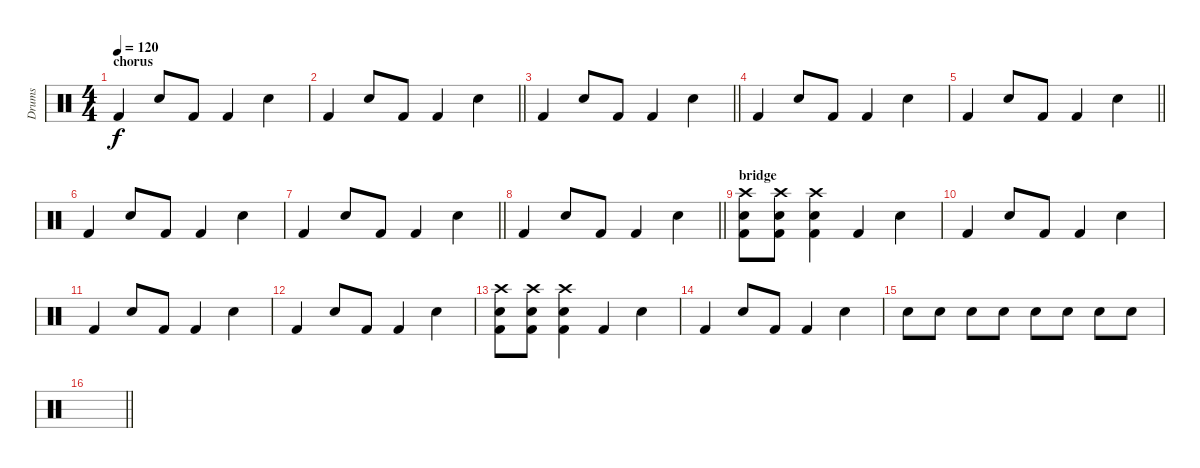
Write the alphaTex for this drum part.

\track ("Drums" "Drums") {instrument percussion}
\staff {score}
\articulation defaults
\ts (4 4)
\section ("" "chorus")
\tempo 120
\clef neutral
\ks c "Kick (hit) 2".4{dy f} "Snare (hit) 2".8 "Kick (hit) 2".8 "Kick (hit) 2".4 "Snare (hit) 2".4
|
\barLineRight lightlight "Kick (hit) 2".4 "Snare (hit) 2".8 "Kick (hit) 2".8 "Kick (hit) 2".4 "Snare (hit) 2".4
|
\barLineRight lightlight "Kick (hit) 2".4 "Snare (hit) 2".8 "Kick (hit) 2".8 "Kick (hit) 2".4 "Snare (hit) 2".4
|
"Kick (hit) 2".4 "Snare (hit) 2".8 "Kick (hit) 2".8 "Kick (hit) 2".4 "Snare (hit) 2".4 |
\barLineRight lightlight "Kick (hit) 2".4 "Snare (hit) 2".8 "Kick (hit) 2".8 "Kick (hit) 2".4 "Snare (hit) 2".4
|
"Kick (hit) 2".4 "Snare (hit) 2".8 "Kick (hit) 2".8 "Kick (hit) 2".4 "Snare (hit) 2".4 |
\barLineRight lightlight "Kick (hit) 2".4 "Snare (hit) 2".8 "Kick (hit) 2".8 "Kick (hit) 2".4 "Snare (hit) 2".4
|
\barLineRight lightlight "Kick (hit) 2".4 "Snare (hit) 2".8 "Kick (hit) 2".8 "Kick (hit) 2".4 "Snare (hit) 2".4
|
\section ("" "bridge")
("Snare (hit) 2" "Kick (hit) 2" "Crash high (hit)").8 ("Snare (hit) 2" "Kick (hit) 2" "Crash high (hit)").8 ("Snare (hit) 2" "Kick (hit) 2" "Crash high (hit)").4 "Kick (hit) 2".4 "Snare (hit) 2".4 |
"Kick (hit) 2".4 "Snare (hit) 2".8 "Kick (hit) 2".8 "Kick (hit) 2".4 "Snare (hit) 2".4 |
"Kick (hit) 2".4 "Snare (hit) 2".8 "Kick (hit) 2".8 "Kick (hit) 2".4 "Snare (hit) 2".4 |
"Kick (hit) 2".4 "Snare (hit) 2".8 "Kick (hit) 2".8 "Kick (hit) 2".4 "Snare (hit) 2".4 |
("Snare (hit) 2" "Kick (hit) 2" "Crash high (hit)").8 ("Snare (hit) 2" "Kick (hit) 2" "Crash high (hit)").8 ("Snare (hit) 2" "Kick (hit) 2" "Crash high (hit)").4 "Kick (hit) 2".4 "Snare (hit) 2".4 |
"Kick (hit) 2".4 "Snare (hit) 2".8 "Kick (hit) 2".8 "Kick (hit) 2".4 "Snare (hit) 2".4 |
"Snare (hit) 2".8 "Snare (hit) 2".8 "Snare (hit) 2".8 "Snare (hit) 2".8 "Snare (hit) 2".8 "Snare (hit) 2".8 "Snare (hit) 2".8 "Snare (hit) 2".8 |
\barLineRight lightlight
